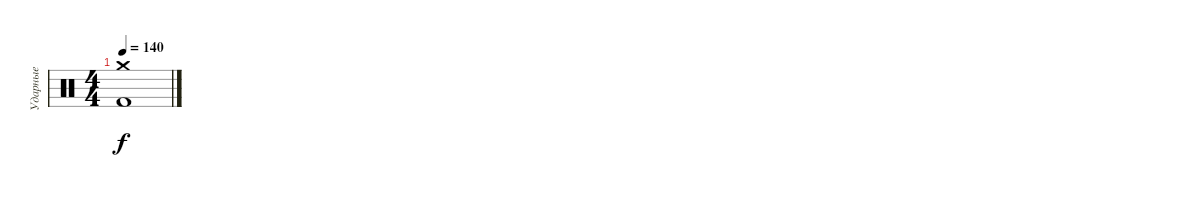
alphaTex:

\track ("Ударные" "Ударные") {instrument percussion}
\staff {score}
\articulation defaults
\ts (4 4)
\tempo 140
\clef neutral
\ks c
("Crash medium (hit)" "Kick (hit) 2").1{dy f}
